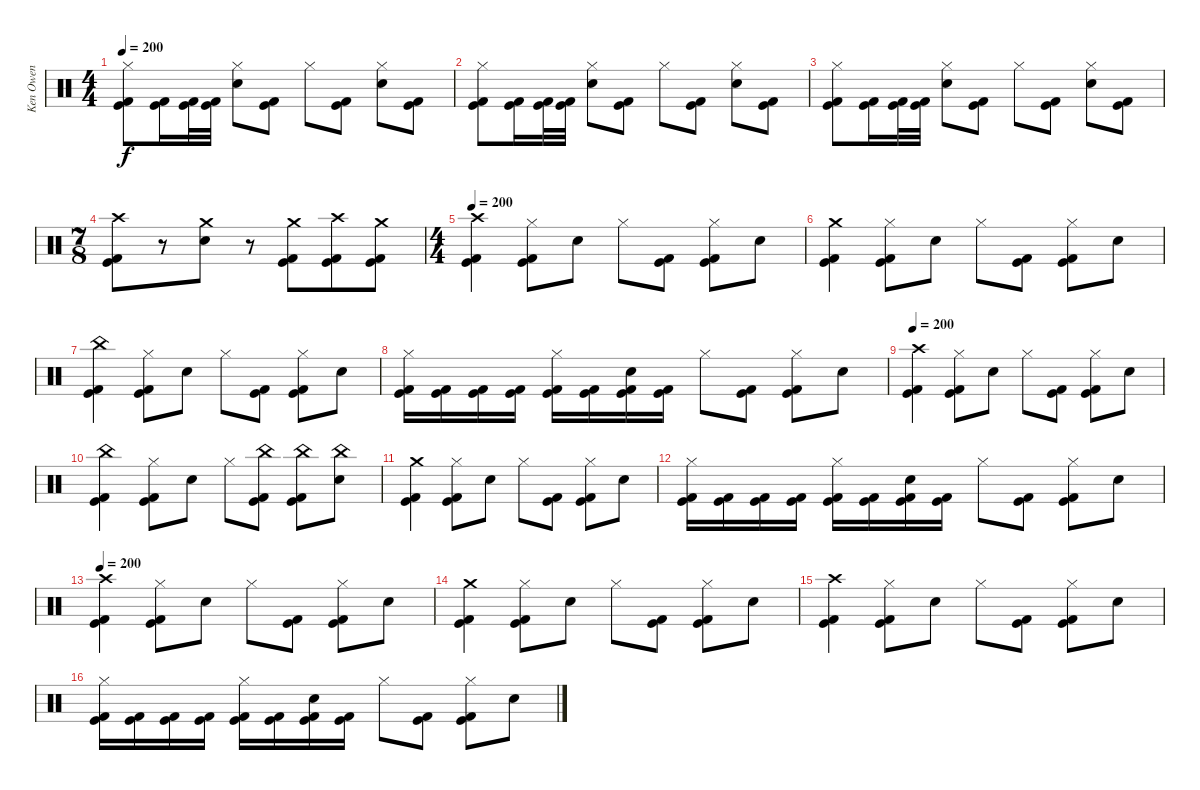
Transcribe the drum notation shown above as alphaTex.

\track ("Ken Owen" "Ken Owen") {instrument percussion}
\staff {score}
\articulation defaults
\ts (4 4)
\tempo 200
\clef neutral
\ks c
("Hi-Hat (closed)" "Kick (hit)" "Kick (hit) 2").8{dy f} ("Kick (hit)" "Kick (hit) 2").16 ("Kick (hit)" "Kick (hit) 2").32 ("Kick (hit)" "Kick (hit) 2").32 ("Hi-Hat (closed)" "Electric Snare (hit)").8 ("Kick (hit)" "Kick (hit) 2").8 "Hi-Hat (closed)".8 ("Kick (hit)" "Kick (hit) 2").8 ("Hi-Hat (closed)" "Electric Snare (hit)").8 ("Kick (hit)" "Kick (hit) 2").8 |
("Hi-Hat (closed)" "Kick (hit)" "Kick (hit) 2").8 ("Kick (hit)" "Kick (hit) 2").16 ("Kick (hit)" "Kick (hit) 2").32 ("Kick (hit)" "Kick (hit) 2").32 ("Hi-Hat (closed)" "Electric Snare (hit)").8 ("Kick (hit)" "Kick (hit) 2").8 "Hi-Hat (closed)".8 ("Kick (hit)" "Kick (hit) 2").8 ("Hi-Hat (closed)" "Electric Snare (hit)").8 ("Kick (hit) 2" "Kick (hit)").8 |
("Hi-Hat (closed)" "Kick (hit)" "Kick (hit) 2").8 ("Kick (hit)" "Kick (hit) 2").16 ("Kick (hit)" "Kick (hit) 2").32 ("Kick (hit)" "Kick (hit) 2").32 ("Hi-Hat (closed)" "Electric Snare (hit)").8 ("Kick (hit)" "Kick (hit) 2").8 "Hi-Hat (closed)".8 ("Kick (hit)" "Kick (hit) 2").8 ("Hi-Hat (closed)" "Electric Snare (hit)").8 ("Kick (hit) 2" "Kick (hit)").8 |
\ts (7 8)
("Crash high (hit)" "Kick (hit)" "Kick (hit) 2").8 r.8 ("Crash medium (hit)" "Electric Snare (hit)").8 r.8 ("Crash medium (hit)" "Kick (hit)" "Kick (hit) 2").8 ("Crash high (hit)" "Kick (hit)" "Kick (hit) 2").8 ("Crash medium (hit)" "Kick (hit)" "Kick (hit) 2").8 |
\ts (4 4)
\tempo 200
("Crash high (hit)" "Kick (hit)" "Kick (hit) 2").4 ("Hi-Hat (closed)" "Kick (hit)" "Kick (hit) 2").8 "Electric Snare (hit)".8 "Hi-Hat (closed)".8 ("Kick (hit)" "Kick (hit) 2").8 ("Hi-Hat (closed)" "Kick (hit)" "Kick (hit) 2").8 "Electric Snare (hit)".8 |
("Crash medium (hit)" "Kick (hit)" "Kick (hit) 2").4 ("Hi-Hat (closed)" "Kick (hit)" "Kick (hit) 2").8 "Electric Snare (hit)".8 "Hi-Hat (closed)".8 ("Kick (hit)" "Kick (hit) 2").8 ("Hi-Hat (closed)" "Kick (hit)" "Kick (hit) 2").8 "Electric Snare (hit)".8 |
("China (hit)" "Kick (hit)" "Kick (hit) 2").4 ("Hi-Hat (closed)" "Kick (hit)" "Kick (hit) 2").8 "Electric Snare (hit)".8 "Hi-Hat (closed)".8 ("Kick (hit)" "Kick (hit) 2").8 ("Hi-Hat (closed)" "Kick (hit)" "Kick (hit) 2").8 "Electric Snare (hit)".8 |
("Hi-Hat (closed)" "Kick (hit)" "Kick (hit) 2").16 ("Kick (hit)" "Kick (hit) 2").16 ("Kick (hit)" "Kick (hit) 2").16 ("Kick (hit)" "Kick (hit) 2").16 ("Hi-Hat (closed)" "Kick (hit)" "Kick (hit) 2").16 ("Kick (hit)" "Kick (hit) 2").16 ("Electric Snare (hit)" "Kick (hit)" "Kick (hit) 2").16 ("Kick (hit)" "Kick (hit) 2").16 "Hi-Hat (closed)".8 ("Kick (hit)" "Kick (hit) 2").8 ("Hi-Hat (closed)" "Kick (hit)" "Kick (hit) 2").8 "Electric Snare (hit)".8 |
\tempo 200
("Crash high (hit)" "Kick (hit)" "Kick (hit) 2").4 ("Hi-Hat (closed)" "Kick (hit)" "Kick (hit) 2").8 "Electric Snare (hit)".8 "Hi-Hat (closed)".8 ("Kick (hit)" "Kick (hit) 2").8 ("Hi-Hat (closed)" "Kick (hit)" "Kick (hit) 2").8 "Electric Snare (hit)".8 |
("China (hit)" "Kick (hit)" "Kick (hit) 2").4 ("Hi-Hat (closed)" "Kick (hit)" "Kick (hit) 2").8 "Electric Snare (hit)".8 "Hi-Hat (closed)".8 ("China (hit)" "Kick (hit)" "Kick (hit) 2").8 ("China (hit)" "Kick (hit)" "Kick (hit) 2").8 ("China (hit)" "Electric Snare (hit)").8 |
("Crash medium (hit)" "Kick (hit)" "Kick (hit) 2").4 ("Hi-Hat (closed)" "Kick (hit)" "Kick (hit) 2").8 "Electric Snare (hit)".8 "Hi-Hat (closed)".8 ("Kick (hit)" "Kick (hit) 2").8 ("Hi-Hat (closed)" "Kick (hit)" "Kick (hit) 2").8 "Electric Snare (hit)".8 |
("Hi-Hat (closed)" "Kick (hit)" "Kick (hit) 2").16 ("Kick (hit)" "Kick (hit) 2").16 ("Kick (hit)" "Kick (hit) 2").16 ("Kick (hit)" "Kick (hit) 2").16 ("Hi-Hat (closed)" "Kick (hit)" "Kick (hit) 2").16 ("Kick (hit)" "Kick (hit) 2").16 ("Electric Snare (hit)" "Kick (hit)" "Kick (hit) 2").16 ("Kick (hit)" "Kick (hit) 2").16 "Hi-Hat (closed)".8 ("Kick (hit)" "Kick (hit) 2").8 ("Hi-Hat (closed)" "Kick (hit)" "Kick (hit) 2").8 "Electric Snare (hit)".8 |
\tempo 200
("Crash high (hit)" "Kick (hit)" "Kick (hit) 2").4 ("Hi-Hat (closed)" "Kick (hit)" "Kick (hit) 2").8 "Electric Snare (hit)".8 "Hi-Hat (closed)".8 ("Kick (hit)" "Kick (hit) 2").8 ("Hi-Hat (closed)" "Kick (hit)" "Kick (hit) 2").8 "Electric Snare (hit)".8 |
("Crash medium (hit)" "Kick (hit)" "Kick (hit) 2").4 ("Hi-Hat (closed)" "Kick (hit)" "Kick (hit) 2").8 "Electric Snare (hit)".8 "Hi-Hat (closed)".8 ("Kick (hit)" "Kick (hit) 2").8 ("Hi-Hat (closed)" "Kick (hit)" "Kick (hit) 2").8 "Electric Snare (hit)".8 |
("Crash high (hit)" "Kick (hit)" "Kick (hit) 2").4 ("Hi-Hat (closed)" "Kick (hit)" "Kick (hit) 2").8 "Electric Snare (hit)".8 "Hi-Hat (closed)".8 ("Kick (hit)" "Kick (hit) 2").8 ("Hi-Hat (closed)" "Kick (hit)" "Kick (hit) 2").8 "Electric Snare (hit)".8 |
("Hi-Hat (closed)" "Kick (hit)" "Kick (hit) 2").16 ("Kick (hit)" "Kick (hit) 2").16 ("Kick (hit)" "Kick (hit) 2").16 ("Kick (hit)" "Kick (hit) 2").16 ("Hi-Hat (closed)" "Kick (hit)" "Kick (hit) 2").16 ("Kick (hit)" "Kick (hit) 2").16 ("Electric Snare (hit)" "Kick (hit)" "Kick (hit) 2").16 ("Kick (hit)" "Kick (hit) 2").16 "Hi-Hat (closed)".8 ("Kick (hit)" "Kick (hit) 2").8 ("Hi-Hat (closed)" "Kick (hit)" "Kick (hit) 2").8 "Electric Snare (hit)".8
